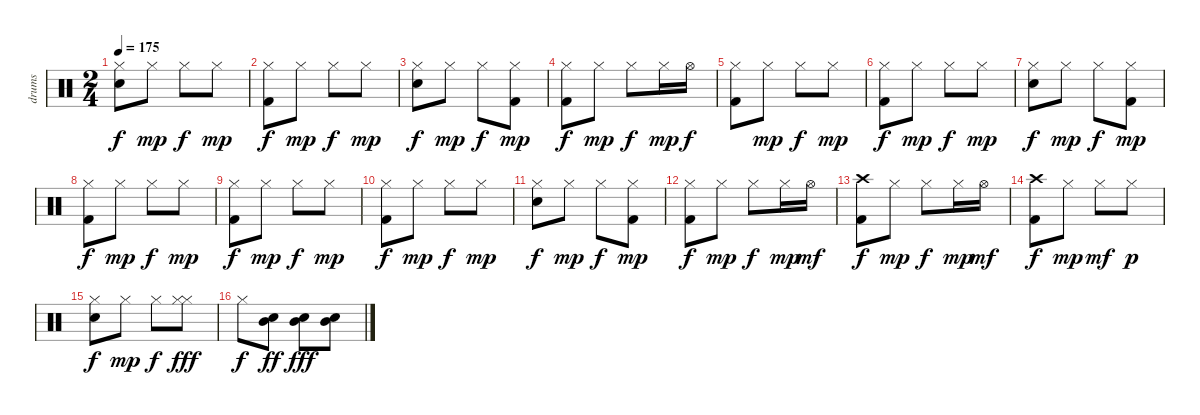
\track ("drums" "drums") {instrument percussion}
\staff {score}
\articulation defaults
\ts (2 4)
\tempo 175
\clef neutral
\ks c
("Hi-Hat (closed)" "Snare (hit) 2").8{dy f} "Hi-Hat (closed)".8{dy mp} "Hi-Hat (closed)".8{dy f} "Hi-Hat (closed)".8{dy mp} |
("Hi-Hat (closed)" "Kick (hit) 2").8{dy f} "Hi-Hat (closed)".8{dy mp} "Hi-Hat (closed)".8{dy f} "Hi-Hat (closed)".8{dy mp} |
("Hi-Hat (closed)" "Snare (hit) 2").8{dy f} "Hi-Hat (closed)".8{dy mp} "Hi-Hat (closed)".8{dy f} ("Hi-Hat (closed)" "Kick (hit) 2").8{dy mp} |
("Hi-Hat (closed)" "Kick (hit) 2").8{dy f} "Hi-Hat (closed)".8{dy mp} "Hi-Hat (closed)".8{dy f} "Hi-Hat (closed)".16{dy mp} "Hi-Hat (open)".16{dy f} |
("Hi-Hat (closed)" "Kick (hit) 2").8 "Hi-Hat (closed)".8{dy mp} "Hi-Hat (closed)".8{dy f} "Hi-Hat (closed)".8{dy mp} |
("Hi-Hat (closed)" "Kick (hit) 2").8{dy f} "Hi-Hat (closed)".8{dy mp} "Hi-Hat (closed)".8{dy f} "Hi-Hat (closed)".8{dy mp} |
("Hi-Hat (closed)" "Snare (hit) 2").8{dy f} "Hi-Hat (closed)".8{dy mp} "Hi-Hat (closed)".8{dy f} ("Hi-Hat (closed)" "Kick (hit) 2").8{dy mp} |
("Hi-Hat (closed)" "Kick (hit) 2").8{dy f} "Hi-Hat (closed)".8{dy mp} "Hi-Hat (closed)".8{dy f} "Hi-Hat (closed)".8{dy mp} |
("Hi-Hat (closed)" "Kick (hit) 2").8{dy f} "Hi-Hat (closed)".8{dy mp} "Hi-Hat (closed)".8{dy f} "Hi-Hat (closed)".8{dy mp} |
("Hi-Hat (closed)" "Kick (hit) 2").8{dy f} "Hi-Hat (closed)".8{dy mp} "Hi-Hat (closed)".8{dy f} "Hi-Hat (closed)".8{dy mp} |
("Hi-Hat (closed)" "Snare (hit) 2").8{dy f} "Hi-Hat (closed)".8{dy mp} "Hi-Hat (closed)".8{dy f} ("Hi-Hat (closed)" "Kick (hit) 2").8{dy mp} |
("Hi-Hat (closed)" "Kick (hit) 2").8{dy f} "Hi-Hat (closed)".8{dy mp} "Hi-Hat (closed)".8{dy f} "Hi-Hat (closed)".16{dy mp} "Hi-Hat (open)".16{dy mf} |
("Crash high (hit)" "Kick (hit) 2").8{dy f} "Hi-Hat (closed)".8{dy mp} "Hi-Hat (closed)".8{dy f} "Hi-Hat (closed)".16{dy mp} "Hi-Hat (open)".16{dy mf} |
("Crash high (hit)" "Kick (hit) 2").8{dy f} "Hi-Hat (closed)".8{dy mp} "Hi-Hat (closed)".8{dy mf} "Hi-Hat (closed)".8{dy p} |
("Hi-Hat (closed)" "Snare (hit) 2").8{dy f} "Hi-Hat (closed)".8{dy mp} "Hi-Hat (closed)".8{dy f} ("Hi-Hat (closed)" "Hi-Hat (closed)").8{dy fff} |
"Hi-Hat (closed)".8{dy f} ("Mid Tom (hit)" "Snare (hit) 2").8{dy ff} ("Mid Tom (hit)" "Snare (hit) 2").8{dy fff} ("Mid Tom (hit)" "Snare (hit) 2").8
